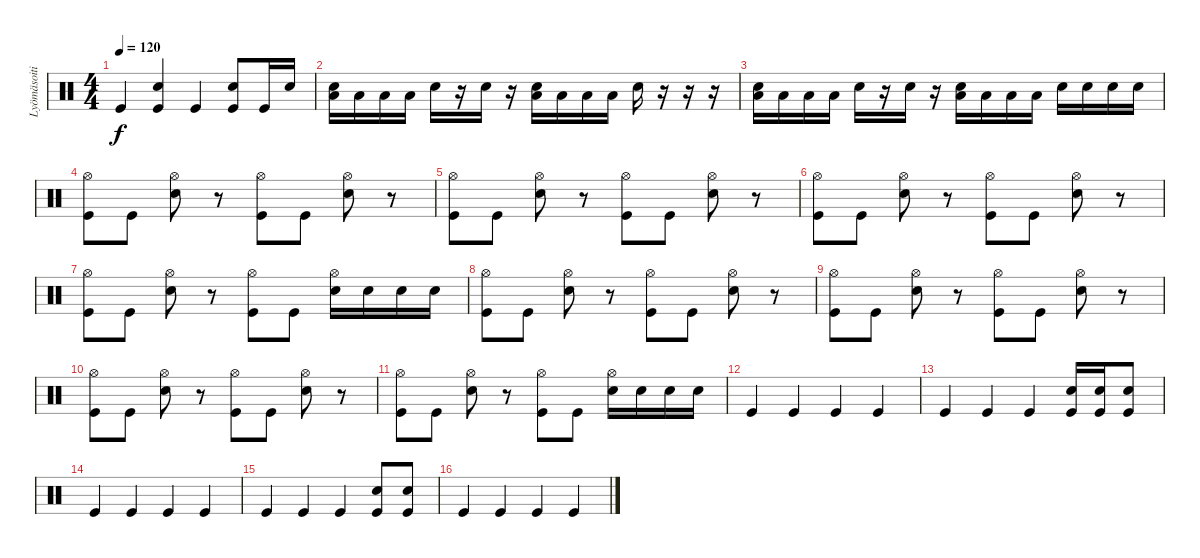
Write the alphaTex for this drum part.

\track ("Lyömäsoitin" "Lyömäsoiti") {instrument percussion}
\staff {score}
\articulation defaults
\ts (4 4)
\tempo 120
\clef neutral
\ks c "Kick (hit)".4{dy f}
("Kick (hit)" "Electric Snare (hit)").4 "Kick (hit)".4 ("Kick (hit)" "Electric Snare (hit)").8 "Kick (hit)".16 "Electric Snare (hit)".16 |
("Hand Clap (hit)" "Low Floor Tom (hit)").16 "Low Floor Tom (hit)".16 "Low Floor Tom (hit)".16 "Low Floor Tom (hit)".16 "Electric Snare (hit)".16 r.16 "Hand Clap (hit)".16 r.16 ("Hand Clap (hit)" "Low Floor Tom (hit)").16 "Low Floor Tom (hit)".16 "Low Floor Tom (hit)".16 "Low Floor Tom (hit)".16 "Electric Snare (hit)".16 r.16 r.16 r.16 |
("Hand Clap (hit)" "Low Floor Tom (hit)").16 "Low Floor Tom (hit)".16 "Low Floor Tom (hit)".16 "Low Floor Tom (hit)".16 "Electric Snare (hit)".16 r.16 "Hand Clap (hit)".16 r.16 ("Hand Clap (hit)" "Low Floor Tom (hit)").16 "Low Floor Tom (hit)".16 "Low Floor Tom (hit)".16 "Low Floor Tom (hit)".16 "Electric Snare (hit)".16 "Electric Snare (hit)".16 "Electric Snare (hit)".16 "Electric Snare (hit)".16 |
("Hi-Hat (open)" "Kick (hit)").8 "Kick (hit)".8 ("Hi-Hat (open)" "Electric Snare (hit)").8 r.8 ("Hi-Hat (open)" "Kick (hit)").8 "Kick (hit)".8 ("Hi-Hat (open)" "Electric Snare (hit)").8 r.8 |
("Hi-Hat (open)" "Kick (hit)").8 "Kick (hit)".8 ("Hi-Hat (open)" "Electric Snare (hit)").8 r.8 ("Hi-Hat (open)" "Kick (hit)").8 "Kick (hit)".8 ("Hi-Hat (open)" "Electric Snare (hit)").8 r.8 |
("Hi-Hat (open)" "Kick (hit)").8 "Kick (hit)".8 ("Hi-Hat (open)" "Electric Snare (hit)").8 r.8 ("Hi-Hat (open)" "Kick (hit)").8 "Kick (hit)".8 ("Hi-Hat (open)" "Electric Snare (hit)").8 r.8 |
("Hi-Hat (open)" "Kick (hit)").8 "Kick (hit)".8 ("Hi-Hat (open)" "Electric Snare (hit)").8 r.8 ("Hi-Hat (open)" "Kick (hit)").8 "Kick (hit)".8 ("Hi-Hat (open)" "Electric Snare (hit)").16 "Electric Snare (hit)".16 "Electric Snare (hit)".16 "Electric Snare (hit)".16 |
("Hi-Hat (open)" "Kick (hit)").8 "Kick (hit)".8 ("Hi-Hat (open)" "Electric Snare (hit)").8 r.8 ("Hi-Hat (open)" "Kick (hit)").8 "Kick (hit)".8 ("Hi-Hat (open)" "Electric Snare (hit)").8 r.8 |
("Hi-Hat (open)" "Kick (hit)").8 "Kick (hit)".8 ("Hi-Hat (open)" "Electric Snare (hit)").8 r.8 ("Hi-Hat (open)" "Kick (hit)").8 "Kick (hit)".8 ("Hi-Hat (open)" "Electric Snare (hit)").8 r.8 |
("Hi-Hat (open)" "Kick (hit)").8 "Kick (hit)".8 ("Hi-Hat (open)" "Electric Snare (hit)").8 r.8 ("Hi-Hat (open)" "Kick (hit)").8 "Kick (hit)".8 ("Hi-Hat (open)" "Electric Snare (hit)").8 r.8 |
("Hi-Hat (open)" "Kick (hit)").8 "Kick (hit)".8 ("Hi-Hat (open)" "Electric Snare (hit)").8 r.8 ("Hi-Hat (open)" "Kick (hit)").8 "Kick (hit)".8 ("Hi-Hat (open)" "Electric Snare (hit)").16 "Electric Snare (hit)".16 "Electric Snare (hit)".16 "Electric Snare (hit)".16 |
"Kick (hit)".4 "Kick (hit)".4 "Kick (hit)".4 "Kick (hit)".4 |
"Kick (hit)".4 "Kick (hit)".4 "Kick (hit)".4 ("Kick (hit)" "Electric Snare (hit)").16 ("Kick (hit)" "Electric Snare (hit)").16 ("Kick (hit)" "Electric Snare (hit)").8 |
"Kick (hit)".4 "Kick (hit)".4 "Kick (hit)".4 "Kick (hit)".4 |
"Kick (hit)".4 "Kick (hit)".4 "Kick (hit)".4 ("Kick (hit)" "Electric Snare (hit)").8 ("Kick (hit)" "Electric Snare (hit)").8 |
"Kick (hit)".4 "Kick (hit)".4 "Kick (hit)".4 "Kick (hit)".4
